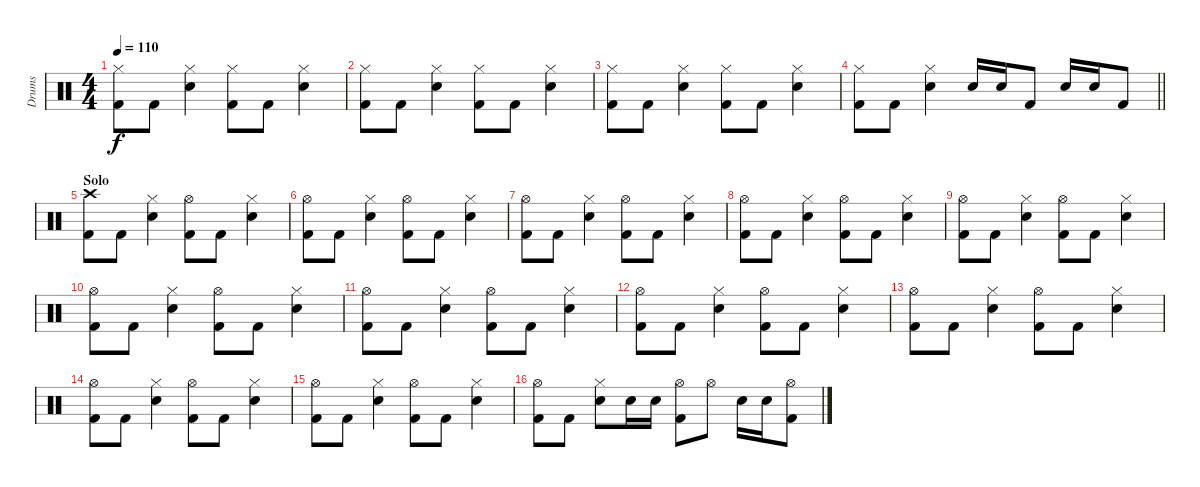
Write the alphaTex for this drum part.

\track ("Drums" "Drums") {instrument percussion}
\staff {score}
\articulation defaults
\ts (4 4)
\tempo 110
\clef neutral
\ks c
("Hi-Hat (closed)" "Kick (hit) 2").8{dy f} "Kick (hit) 2".8 ("Hi-Hat (closed)" "Snare (hit) 2").4 ("Hi-Hat (closed)" "Kick (hit) 2").8 "Kick (hit) 2".8 ("Hi-Hat (closed)" "Snare (hit) 2").4 |
("Hi-Hat (closed)" "Kick (hit) 2").8 "Kick (hit) 2".8 ("Hi-Hat (closed)" "Snare (hit) 2").4 ("Hi-Hat (closed)" "Kick (hit) 2").8 "Kick (hit) 2".8 ("Hi-Hat (closed)" "Snare (hit) 2").4 |
("Hi-Hat (closed)" "Kick (hit) 2").8 "Kick (hit) 2".8 ("Hi-Hat (closed)" "Snare (hit) 2").4 ("Hi-Hat (closed)" "Kick (hit) 2").8 "Kick (hit) 2".8 ("Hi-Hat (closed)" "Snare (hit) 2").4 |
\barLineRight lightlight
("Hi-Hat (closed)" "Kick (hit) 2").8 "Kick (hit) 2".8 ("Hi-Hat (closed)" "Snare (hit) 2").4 "Snare (hit) 2".16 "Snare (hit) 2".16 "Kick (hit) 2".8 "Snare (hit) 2".16 "Snare (hit) 2".16 "Kick (hit) 2".8 |
\section ("" "Solo")
("Crash high (hit)" "Kick (hit) 2").8 "Kick (hit) 2".8 ("Hi-Hat (closed)" "Snare (hit) 2").4 ("Hi-Hat (open)" "Kick (hit) 2").8 "Kick (hit) 2".8 ("Hi-Hat (closed)" "Snare (hit) 2").4 |
("Hi-Hat (open)" "Kick (hit) 2").8 "Kick (hit) 2".8 ("Hi-Hat (closed)" "Snare (hit) 2").4 ("Hi-Hat (open)" "Kick (hit) 2").8 "Kick (hit) 2".8 ("Hi-Hat (closed)" "Snare (hit) 2").4 |
("Hi-Hat (open)" "Kick (hit) 2").8 "Kick (hit) 2".8 ("Hi-Hat (closed)" "Snare (hit) 2").4 ("Hi-Hat (open)" "Kick (hit) 2").8 "Kick (hit) 2".8 ("Hi-Hat (closed)" "Snare (hit) 2").4 |
("Hi-Hat (open)" "Kick (hit) 2").8 "Kick (hit) 2".8 ("Hi-Hat (closed)" "Snare (hit) 2").4 ("Hi-Hat (open)" "Kick (hit) 2").8 "Kick (hit) 2".8 ("Hi-Hat (closed)" "Snare (hit) 2").4 |
("Hi-Hat (open)" "Kick (hit) 2").8 "Kick (hit) 2".8 ("Hi-Hat (closed)" "Snare (hit) 2").4 ("Hi-Hat (open)" "Kick (hit) 2").8 "Kick (hit) 2".8 ("Hi-Hat (closed)" "Snare (hit) 2").4 |
("Hi-Hat (open)" "Kick (hit) 2").8 "Kick (hit) 2".8 ("Hi-Hat (closed)" "Snare (hit) 2").4 ("Hi-Hat (open)" "Kick (hit) 2").8 "Kick (hit) 2".8 ("Hi-Hat (closed)" "Snare (hit) 2").4 |
("Hi-Hat (open)" "Kick (hit) 2").8 "Kick (hit) 2".8 ("Hi-Hat (closed)" "Snare (hit) 2").4 ("Hi-Hat (open)" "Kick (hit) 2").8 "Kick (hit) 2".8 ("Hi-Hat (closed)" "Snare (hit) 2").4 |
("Hi-Hat (open)" "Kick (hit) 2").8 "Kick (hit) 2".8 ("Hi-Hat (closed)" "Snare (hit) 2").4 ("Hi-Hat (open)" "Kick (hit) 2").8 "Kick (hit) 2".8 ("Hi-Hat (closed)" "Snare (hit) 2").4 |
("Hi-Hat (open)" "Kick (hit) 2").8 "Kick (hit) 2".8 ("Hi-Hat (closed)" "Snare (hit) 2").4 ("Hi-Hat (open)" "Kick (hit) 2").8 "Kick (hit) 2".8 ("Hi-Hat (closed)" "Snare (hit) 2").4 |
("Hi-Hat (open)" "Kick (hit) 2").8 "Kick (hit) 2".8 ("Hi-Hat (closed)" "Snare (hit) 2").4 ("Hi-Hat (open)" "Kick (hit) 2").8 "Kick (hit) 2".8 ("Hi-Hat (closed)" "Snare (hit) 2").4 |
("Hi-Hat (open)" "Kick (hit) 2").8 "Kick (hit) 2".8 ("Hi-Hat (closed)" "Snare (hit) 2").4 ("Hi-Hat (open)" "Kick (hit) 2").8 "Kick (hit) 2".8 ("Hi-Hat (closed)" "Snare (hit) 2").4 |
("Hi-Hat (open)" "Kick (hit) 2").8 "Kick (hit) 2".8 ("Hi-Hat (closed)" "Snare (hit) 2").8 "Snare (hit) 2".16 "Snare (hit) 2".16 ("Hi-Hat (open)" "Kick (hit) 2").8 "Hi-Hat (open)".8 "Snare (hit) 2".16 "Snare (hit) 2".16 ("Hi-Hat (open)" "Kick (hit) 2").8
